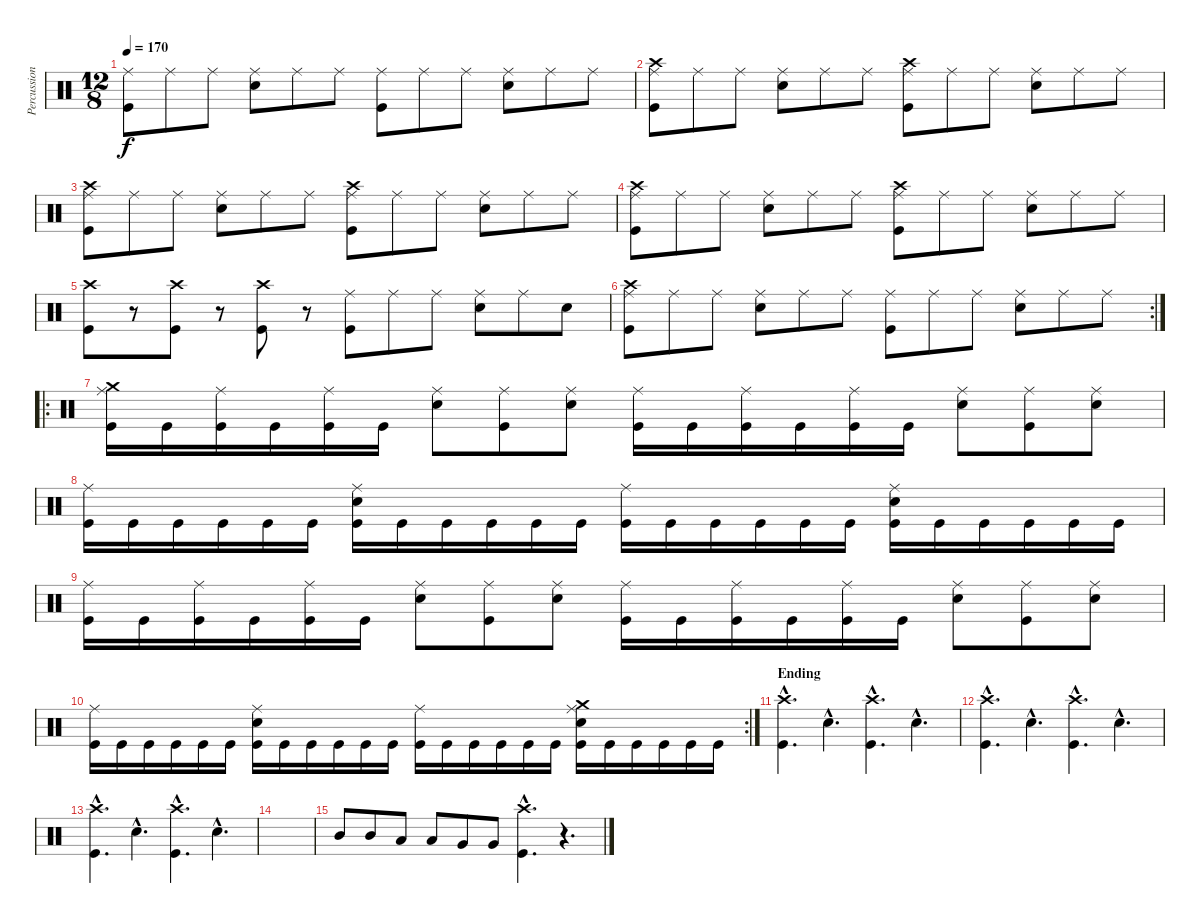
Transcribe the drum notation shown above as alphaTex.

\track ("Percussion" "Percussion") {instrument percussion}
\staff {score}
\articulation defaults
\ts (12 8)
\tempo 170
\clef neutral
\ks c
("Ride (middle)" "Kick (hit)").8{dy f} "Ride (middle)".8 "Ride (middle)".8 ("Ride (middle)" "Snare (hit) 2").8 "Ride (middle)".8 "Ride (middle)".8 ("Ride (middle)" "Kick (hit)").8 "Ride (middle)".8 "Ride (middle)".8 ("Ride (middle)" "Snare (hit) 2").8 "Ride (middle)".8 "Ride (middle)".8 |
("Crash high (hit)" "Ride (middle)" "Kick (hit)").8 "Ride (middle)".8 "Ride (middle)".8 ("Ride (middle)" "Snare (hit) 2").8 "Ride (middle)".8 "Ride (middle)".8 ("Crash high (hit)" "Ride (middle)" "Kick (hit)").8 "Ride (middle)".8 "Ride (middle)".8 ("Ride (middle)" "Snare (hit) 2").8 "Ride (middle)".8 "Ride (middle)".8 |
("Crash high (hit)" "Ride (middle)" "Kick (hit)").8 "Ride (middle)".8 "Ride (middle)".8 ("Ride (middle)" "Snare (hit) 2").8 "Ride (middle)".8 "Ride (middle)".8 ("Crash high (hit)" "Ride (middle)" "Kick (hit)").8 "Ride (middle)".8 "Ride (middle)".8 ("Ride (middle)" "Snare (hit) 2").8 "Ride (middle)".8 "Ride (middle)".8 |
("Crash high (hit)" "Ride (middle)" "Kick (hit)").8 "Ride (middle)".8 "Ride (middle)".8 ("Ride (middle)" "Snare (hit) 2").8 "Ride (middle)".8 "Ride (middle)".8 ("Crash high (hit)" "Ride (middle)" "Kick (hit)").8 "Ride (middle)".8 "Ride (middle)".8 ("Ride (middle)" "Snare (hit) 2").8 "Ride (middle)".8 "Ride (middle)".8 |
("Crash high (hit)" "Kick (hit)").8 r.8{volume 0} ("Crash high (hit)" "Kick (hit)").8{volume 10} r.8{volume 0} ("Crash high (hit)" "Kick (hit)").8{volume 10} r.8{volume 0} ("Ride (middle)" "Kick (hit)").8{volume 10} "Ride (middle)".8 "Ride (middle)".8 ("Ride (middle)" "Snare (hit) 2").8 "Ride (middle)".8 "Snare (hit)".8 |
\rc 2
("Crash high (hit)" "Ride (middle)" "Kick (hit)").8 "Ride (middle)".8 "Ride (middle)".8 ("Ride (middle)" "Snare (hit) 2").8 "Ride (middle)".8 "Ride (middle)".8 ("Ride (middle)" "Kick (hit)").8 "Ride (middle)".8 "Ride (middle)".8 ("Ride (middle)" "Snare (hit) 2").8 "Ride (middle)".8 "Ride (middle)".8 |
\ro
("Crash medium (hit)" "Ride (middle)" "Kick (hit)").16 "Kick (hit)".16 ("Ride (middle)" "Kick (hit)").16 "Kick (hit)".16 ("Ride (middle)" "Kick (hit)").16 "Kick (hit)".16 ("Ride (middle)" "Snare (hit) 2").8 ("Ride (middle)" "Kick (hit)").8 ("Ride (middle)" "Snare (hit) 2").8 ("Ride (middle)" "Kick (hit)").16 "Kick (hit)".16 ("Ride (middle)" "Kick (hit)").16 "Kick (hit)".16 ("Ride (middle)" "Kick (hit)").16 "Kick (hit)".16 ("Ride (middle)" "Snare (hit) 2").8 ("Ride (middle)" "Kick (hit)").8 ("Ride (middle)" "Snare (hit) 2").8 |
("Ride (middle)" "Kick (hit)").16 "Kick (hit)".16 "Kick (hit)".16 "Kick (hit)".16 "Kick (hit)".16 "Kick (hit)".16 ("Ride (middle)" "Snare (hit) 2" "Kick (hit)").16 "Kick (hit)".16 "Kick (hit)".16 "Kick (hit)".16 "Kick (hit)".16 "Kick (hit)".16 ("Ride (middle)" "Kick (hit)").16 "Kick (hit)".16 "Kick (hit)".16 "Kick (hit)".16 "Kick (hit)".16 "Kick (hit)".16 ("Ride (middle)" "Snare (hit) 2" "Kick (hit)").16 "Kick (hit)".16 "Kick (hit)".16 "Kick (hit)".16 "Kick (hit)".16 "Kick (hit)".16 |
("Ride (middle)" "Kick (hit)").16 "Kick (hit)".16 ("Ride (middle)" "Kick (hit)").16 "Kick (hit)".16 ("Ride (middle)" "Kick (hit)").16 "Kick (hit)".16 ("Ride (middle)" "Snare (hit) 2").8 ("Ride (middle)" "Kick (hit)").8 ("Ride (middle)" "Snare (hit) 2").8 ("Ride (middle)" "Kick (hit)").16 "Kick (hit)".16 ("Ride (middle)" "Kick (hit)").16 "Kick (hit)".16 ("Ride (middle)" "Kick (hit)").16 "Kick (hit)".16 ("Ride (middle)" "Snare (hit) 2").8 ("Ride (middle)" "Kick (hit)").8 ("Ride (middle)" "Snare (hit) 2").8 |
\rc 2
("Ride (middle)" "Kick (hit)").16 "Kick (hit)".16 "Kick (hit)".16 "Kick (hit)".16 "Kick (hit)".16 "Kick (hit)".16 ("Ride (middle)" "Snare (hit) 2" "Kick (hit)").16 "Kick (hit)".16 "Kick (hit)".16 "Kick (hit)".16 "Kick (hit)".16 "Kick (hit)".16 ("Ride (middle)" "Kick (hit)").16 "Kick (hit)".16 "Kick (hit)".16 "Kick (hit)".16 "Kick (hit)".16 "Kick (hit)".16 ("Crash medium (hit)" "Ride (middle)" "Snare (hit) 2" "Kick (hit)").16 "Kick (hit)".16 "Kick (hit)".16 "Kick (hit)".16 "Kick (hit)".16 "Kick (hit)".16 |
\section ("" "Ending")
("Crash high (hit)"{hac} "Kick (hit)"{hac}).4{d} "Snare (hit) 2"{hac}.4{d} ("Crash high (hit)"{hac} "Kick (hit)"{hac}).4{d} "Snare (hit) 2"{hac}.4{d} |
("Crash high (hit)"{hac} "Kick (hit)"{hac}).4{d} "Snare (hit) 2"{hac}.4{d} ("Crash high (hit)"{hac} "Kick (hit)"{hac}).4{d} "Snare (hit) 2"{hac}.4{d} |
("Crash high (hit)"{hac} "Kick (hit)"{hac}).4{d} "Snare (hit) 2"{hac}.4{d} ("Crash high (hit)"{hac} "Kick (hit)"{hac}).4{d} "Snare (hit) 2"{hac}.4{d} |
|
"Mid Tom (hit)".8 "Mid Tom (hit)".8 "Low Tom (hit)".8 "Low Tom (hit)".8 "Very Low Tom (hit)".8 "Very Low Tom (hit)".8 ("Crash high (hit)"{hac} "Kick (hit)"{hac}).4{d} r.4{d volume 0}
